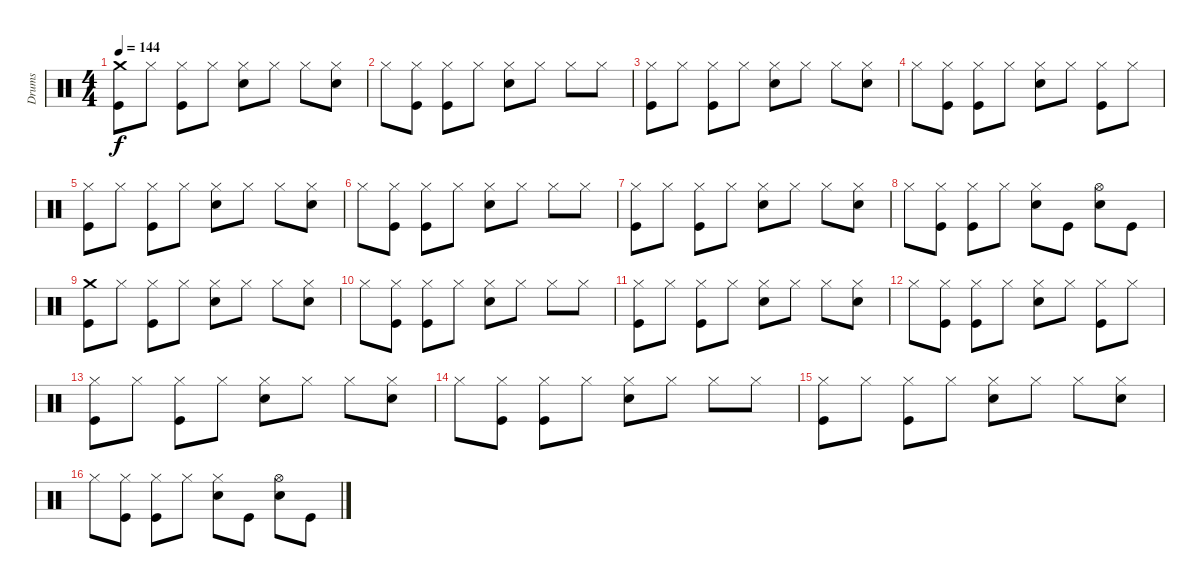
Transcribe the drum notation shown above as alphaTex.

\track ("Drums" "Drums") {instrument percussion}
\staff {score}
\articulation defaults
\ts (4 4)
\tempo 144
\clef neutral
\ks c
("Crash medium (hit)" "Kick (hit)").8{dy f} "Hi-Hat (closed)".8 ("Hi-Hat (closed)" "Kick (hit)").8 "Hi-Hat (closed)".8 ("Hi-Hat (closed)" "Snare (hit) 2").8 "Hi-Hat (closed)".8 "Hi-Hat (closed)".8 ("Hi-Hat (closed)" "Snare (hit) 2").8 |
"Hi-Hat (closed)".8 ("Hi-Hat (closed)" "Kick (hit)").8 ("Hi-Hat (closed)" "Kick (hit)").8 "Hi-Hat (closed)".8 ("Hi-Hat (closed)" "Snare (hit) 2").8 "Hi-Hat (closed)".8 "Hi-Hat (closed)".8 "Hi-Hat (closed)".8 |
("Hi-Hat (closed)" "Kick (hit)").8 "Hi-Hat (closed)".8 ("Hi-Hat (closed)" "Kick (hit)").8 "Hi-Hat (closed)".8 ("Hi-Hat (closed)" "Snare (hit) 2").8 "Hi-Hat (closed)".8 "Hi-Hat (closed)".8 ("Hi-Hat (closed)" "Snare (hit) 2").8 |
"Hi-Hat (closed)".8 ("Hi-Hat (closed)" "Kick (hit)").8 ("Hi-Hat (closed)" "Kick (hit)").8 "Hi-Hat (closed)".8 ("Hi-Hat (closed)" "Snare (hit) 2").8 "Hi-Hat (closed)".8 ("Hi-Hat (closed)" "Kick (hit)").8 "Hi-Hat (closed)".8 |
("Hi-Hat (closed)" "Kick (hit)").8 "Hi-Hat (closed)".8 ("Hi-Hat (closed)" "Kick (hit)").8 "Hi-Hat (closed)".8 ("Hi-Hat (closed)" "Snare (hit) 2").8 "Hi-Hat (closed)".8 "Hi-Hat (closed)".8 ("Hi-Hat (closed)" "Snare (hit) 2").8 |
"Hi-Hat (closed)".8 ("Hi-Hat (closed)" "Kick (hit)").8 ("Hi-Hat (closed)" "Kick (hit)").8 "Hi-Hat (closed)".8 ("Hi-Hat (closed)" "Snare (hit) 2").8 "Hi-Hat (closed)".8 "Hi-Hat (closed)".8 "Hi-Hat (closed)".8 |
("Hi-Hat (closed)" "Kick (hit)").8 "Hi-Hat (closed)".8 ("Hi-Hat (closed)" "Kick (hit)").8 "Hi-Hat (closed)".8 ("Hi-Hat (closed)" "Snare (hit) 2").8 "Hi-Hat (closed)".8 "Hi-Hat (closed)".8 ("Hi-Hat (closed)" "Snare (hit) 2").8 |
"Hi-Hat (closed)".8 ("Hi-Hat (closed)" "Kick (hit)").8 ("Hi-Hat (closed)" "Kick (hit)").8 "Hi-Hat (closed)".8 ("Hi-Hat (closed)" "Snare (hit) 2").8 "Kick (hit)".8 ("Hi-Hat (open)" "Snare (hit) 2").8 "Kick (hit)".8 |
("Crash medium (hit)" "Kick (hit)").8 "Hi-Hat (closed)".8 ("Hi-Hat (closed)" "Kick (hit)").8 "Hi-Hat (closed)".8 ("Hi-Hat (closed)" "Snare (hit) 2").8 "Hi-Hat (closed)".8 "Hi-Hat (closed)".8 ("Hi-Hat (closed)" "Snare (hit) 2").8 |
"Hi-Hat (closed)".8 ("Hi-Hat (closed)" "Kick (hit)").8 ("Hi-Hat (closed)" "Kick (hit)").8 "Hi-Hat (closed)".8 ("Hi-Hat (closed)" "Snare (hit) 2").8 "Hi-Hat (closed)".8 "Hi-Hat (closed)".8 "Hi-Hat (closed)".8 |
("Hi-Hat (closed)" "Kick (hit)").8 "Hi-Hat (closed)".8 ("Hi-Hat (closed)" "Kick (hit)").8 "Hi-Hat (closed)".8 ("Hi-Hat (closed)" "Snare (hit) 2").8 "Hi-Hat (closed)".8 "Hi-Hat (closed)".8 ("Hi-Hat (closed)" "Snare (hit) 2").8 |
"Hi-Hat (closed)".8 ("Hi-Hat (closed)" "Kick (hit)").8 ("Hi-Hat (closed)" "Kick (hit)").8 "Hi-Hat (closed)".8 ("Hi-Hat (closed)" "Snare (hit) 2").8 "Hi-Hat (closed)".8 ("Hi-Hat (closed)" "Kick (hit)").8 "Hi-Hat (closed)".8 |
("Hi-Hat (closed)" "Kick (hit)").8 "Hi-Hat (closed)".8 ("Hi-Hat (closed)" "Kick (hit)").8 "Hi-Hat (closed)".8 ("Hi-Hat (closed)" "Snare (hit) 2").8 "Hi-Hat (closed)".8 "Hi-Hat (closed)".8 ("Hi-Hat (closed)" "Snare (hit) 2").8 |
"Hi-Hat (closed)".8 ("Hi-Hat (closed)" "Kick (hit)").8 ("Hi-Hat (closed)" "Kick (hit)").8 "Hi-Hat (closed)".8 ("Hi-Hat (closed)" "Snare (hit) 2").8 "Hi-Hat (closed)".8 "Hi-Hat (closed)".8 "Hi-Hat (closed)".8 |
("Hi-Hat (closed)" "Kick (hit)").8 "Hi-Hat (closed)".8 ("Hi-Hat (closed)" "Kick (hit)").8 "Hi-Hat (closed)".8 ("Hi-Hat (closed)" "Snare (hit) 2").8 "Hi-Hat (closed)".8 "Hi-Hat (closed)".8 ("Hi-Hat (closed)" "Snare (hit) 2").8 |
"Hi-Hat (closed)".8 ("Hi-Hat (closed)" "Kick (hit)").8 ("Hi-Hat (closed)" "Kick (hit)").8 "Hi-Hat (closed)".8 ("Hi-Hat (closed)" "Snare (hit) 2").8 "Kick (hit)".8 ("Hi-Hat (open)" "Snare (hit) 2").8 "Kick (hit)".8
